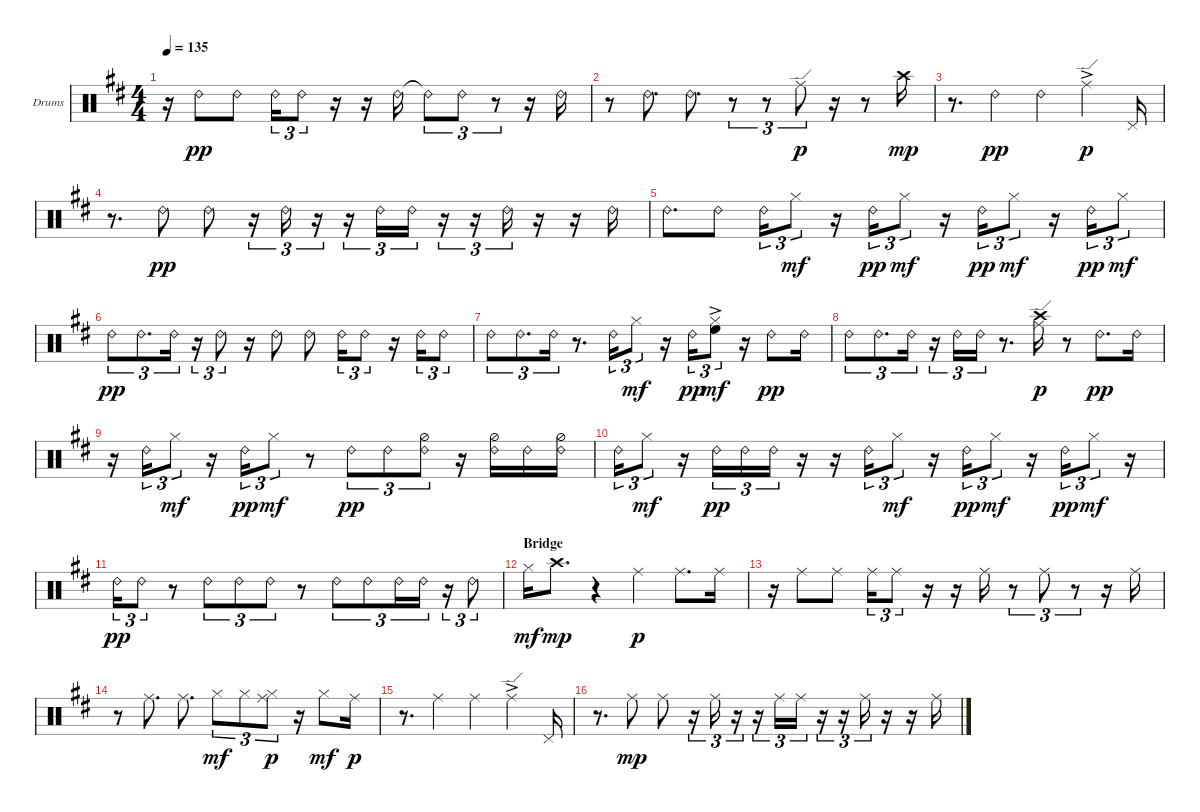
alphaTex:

\bracketExtendMode groupsimilarinstruments
\firstSystemTrackNameOrientation horizontal
\otherSystemsTrackNameOrientation horizontal
\track ("OH" "Drums") {instrument percussion}
\staff {score}
\articulation defaults
\ts (4 4)
\tempo 135
\clef neutral
\ks d
r.16{dy pp} "Ride (bell) 2".8 "Ride (bell) 2".8 "Ride (bell) 2".16{tu (3 2)} "Ride (bell) 2".8{tu (3 2)} r.16 r.16 "Ride (bell) 2".16 "Ride (bell) 2"{t}.8{tu (3 2)} "Ride (bell) 2".8{tu (3 2)} r.8{tu (3 2)} r.16 "Ride (bell) 2".16 |
r.8 "Ride (bell) 2".8{d} "Ride (bell) 2".8{d} r.8{tu (3 2)} r.8{tu (3 2)} "Ride (edge)".8{tu (3 2) dy p} r.16 r.8 "Crash high (hit)".16{dy mp} |
r.8{d} "Ride (bell) 2".4{dy pp} "Ride (bell) 2".4 "Ride (edge)"{ac}.4{dy p} "Pedal Hi-Hat (hit)".16 |
r.8{d} "Ride (bell) 2".8{dy pp} "Ride (bell) 2".8 r.16{tu (3 2)} "Ride (bell) 2".16{tu (3 2)} r.16{tu (3 2)} r.16{tu (3 2)} "Ride (bell) 2".16{tu (3 2)} "Ride (bell) 2".16{tu (3 2)} r.16{tu (3 2)} r.16{tu (3 2)} "Ride (bell) 2".16{tu (3 2)} r.16 r.16 "Ride (bell) 2".16 |
"Ride (bell) 2".8{d} "Ride (bell) 2".8 "Ride (bell) 2".16{tu (3 2)} "Hi-Hat (closed)".8{tu (3 2) dy mf} r.16 "Ride (bell) 2".16{tu (3 2) dy pp} "Hi-Hat (closed)".8{tu (3 2) dy mf} r.16 "Ride (bell) 2".16{tu (3 2) dy pp} "Hi-Hat (closed)".8{tu (3 2) dy mf} r.16 "Ride (bell) 2".16{tu (3 2) dy pp} "Hi-Hat (closed)".8{tu (3 2) dy mf} |
"Ride (bell) 2".8{tu (3 2) dy pp} "Ride (bell) 2".8{d tu (3 2)} "Ride (bell) 2".16{tu (3 2)} r.16{tu (3 2)} "Ride (bell) 2".8{tu (3 2)} r.16 "Ride (bell) 2".8 "Ride (bell) 2".8 "Ride (bell) 2".16{tu (3 2)} "Ride (bell) 2".8{tu (3 2)} r.16 "Ride (bell) 2".16{tu (3 2)} "Ride (bell) 2".8{tu (3 2)} |
"Ride (bell) 2".8{tu (3 2)} "Ride (bell) 2".8{d tu (3 2)} "Ride (bell) 2".16{tu (3 2)} r.8{d} "Ride (bell) 2".16{tu (3 2)} "Hi-Hat (closed)".8{tu (3 2) dy mf} r.16 "Ride (bell) 2".16{tu (3 2) dy pp} ("Hi-Hat (closed)" "High Floor Tom (hit)"{ac}).8{tu (3 2) dy mf} r.16 "Ride (bell) 2".8{dy pp} "Ride (bell) 2".16 |
"Ride (bell) 2".8{tu (3 2)} "Ride (bell) 2".8{d tu (3 2)} "Ride (bell) 2".16{tu (3 2)} r.16{tu (3 2)} "Ride (bell) 2".16{tu (3 2)} "Ride (bell) 2".16{tu (3 2)} r.8{d} ("Ride (edge)" "Crash high (hit)").16{dy p} r.8 "Ride (bell) 2".8{d dy pp} "Ride (bell) 2".16 |
r.16 "Ride (bell) 2".16{tu (3 2)} "Hi-Hat (closed)".8{tu (3 2) dy mf} r.16 "Ride (bell) 2".16{tu (3 2) dy pp} "Hi-Hat (closed)".8{tu (3 2) dy mf} r.8 "Ride (bell) 2".8{tu (3 2) dy pp} "Ride (bell) 2".8{tu (3 2)} ("Ride (bell) 2" "Hi-Hat (half)").8{tu (3 2)} r.16 ("Ride (bell) 2" "Hi-Hat (half)").16 "Ride (bell) 2".16 ("Ride (bell) 2" "Hi-Hat (half)").16 |
"Ride (bell) 2".16{tu (3 2)} "Hi-Hat (closed)".8{tu (3 2) dy mf} r.16 "Ride (bell) 2".16{tu (3 2) dy pp} "Ride (bell) 2".16{tu (3 2)} "Ride (bell) 2".16{tu (3 2)} r.16 r.16 "Ride (bell) 2".16{tu (3 2)} "Hi-Hat (closed)".8{tu (3 2) dy mf} r.16 "Ride (bell) 2".16{tu (3 2) dy pp} "Hi-Hat (closed)".8{tu (3 2) dy mf} r.16 "Ride (bell) 2".16{tu (3 2) dy pp} "Hi-Hat (closed)".8{tu (3 2) dy mf} r.16 |
"Ride (bell) 2".16{tu (3 2) dy pp} "Ride (bell) 2".8{tu (3 2)} r.8 "Ride (bell) 2".8{tu (3 2)} "Ride (bell) 2".8{tu (3 2)} "Ride (bell) 2".8{tu (3 2)} r.8 "Ride (bell) 2".8{tu (3 2)} "Ride (bell) 2".8{tu (3 2)} "Ride (bell) 2".16{tu (3 2)} "Ride (bell) 2".16{tu (3 2)} r.16{tu (3 2)} "Ride (bell) 2".8{tu (3 2)} |
\section ("" "Bridge")
"Hi-Hat (closed)".16{dy mf} "Crash high (hit)".8{d dy mp} r.4 "Ride (middle)".4{dy p} "Ride (middle)".8{d} "Ride (middle)".16 |
\scale
0.576923 r.16 "Ride (middle)".8 "Ride (middle)".8 "Ride (middle)".16{tu (3 2)} "Ride (middle)".8{tu (3 2)} r.16 r.16 "Ride (middle)".16 r.8{tu (3 2)} "Ride (middle)".8{tu (3 2)} r.8{tu (3 2)} r.16 "Ride (middle)".16 |
\scale
0.309717 r.8 "Ride (middle)".8{d} "Ride (middle)".8{d} "Hi-Hat (closed)".8{tu (3 2) dy mf} "Hi-Hat (closed)".8{tu (3 2)} ("Hi-Hat (closed)" "Ride (middle)").8{tu (3 2) dy p} r.16 "Hi-Hat (closed)".8{dy mf} "Ride (middle)".16{dy p} |
r.8{d} "Ride (middle)".4 "Ride (middle)".4 "Ride (edge)"{ac}.4 "Pedal Hi-Hat (hit)".16 |
r.8{d} "Ride (middle)".8{dy mp} "Ride (middle)".8 r.16{tu (3 2)} "Ride (middle)".16{tu (3 2)} r.16{tu (3 2)} r.16{tu (3 2)} "Ride (middle)".16{tu (3 2)} "Ride (middle)".16{tu (3 2)} r.16{tu (3 2)} r.16{tu (3 2)} "Ride (middle)".16{tu (3 2)} r.16 r.16 "Ride (middle)".16
